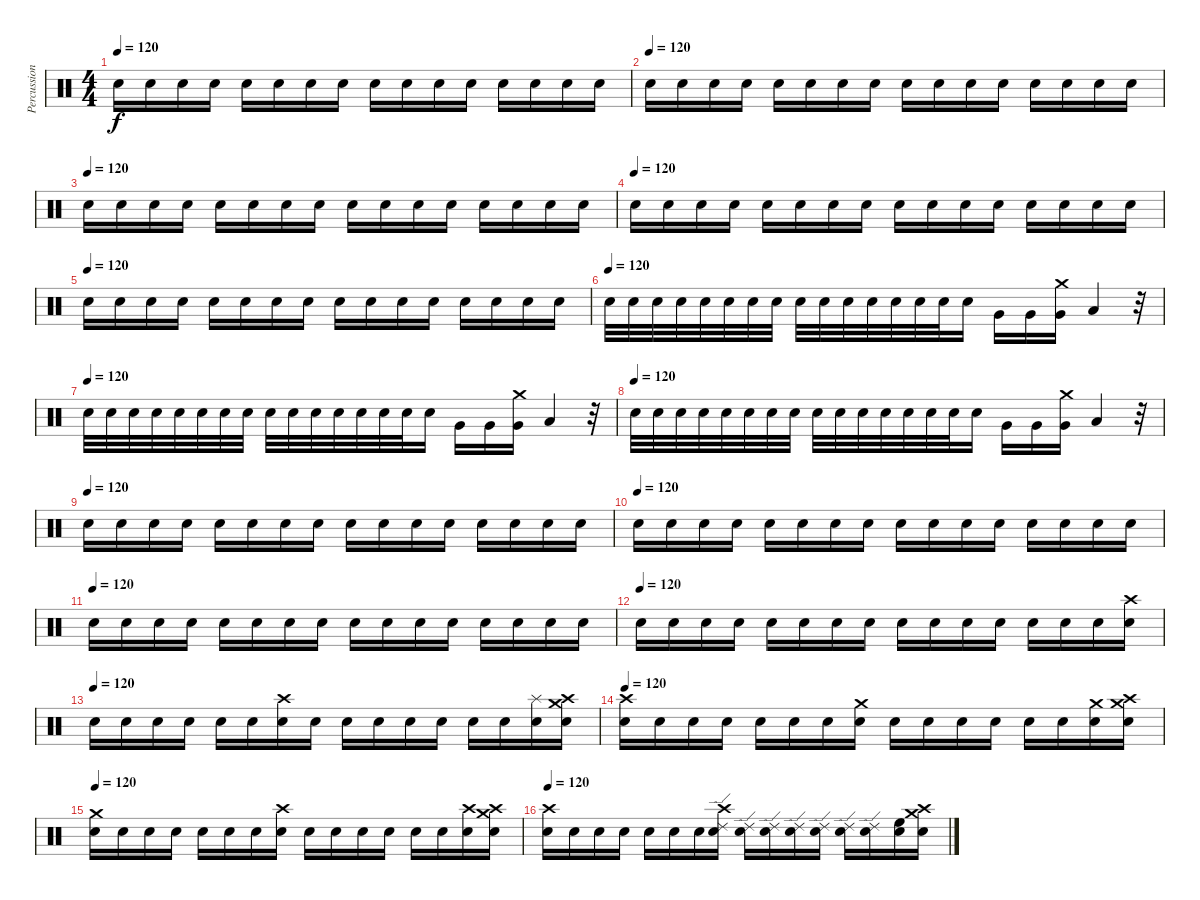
\track ("Percussion" "Percussion") {instrument percussion}
\staff {score}
\articulation defaults
\ts (4 4)
\tempo 120
\clef neutral
\ks c "Snare (hit) 2".16{dy f} "Electric Snare (hit)".16 "Snare (hit) 2".16 "Electric Snare (hit)".16 "Snare (hit) 2".16 "Electric Snare (hit)".16 "Snare (hit) 2".16 "Snare (hit) 2".16 "Electric Snare (hit)".16 "Snare (hit) 2".16 "Electric Snare (hit)".16 "Snare (hit) 2".16 "Electric Snare (hit)".16 "Snare (hit) 2".16 "Electric Snare (hit)".16 "Snare (hit) 2".16
|
\tempo (120)
"Snare (hit) 2".16 "Electric Snare (hit)".16 "Snare (hit) 2".16 "Electric Snare (hit)".16 "Snare (hit) 2".16 "Electric Snare (hit)".16 "Snare (hit) 2".16 "Snare (hit) 2".16 "Electric Snare (hit)".16 "Snare (hit) 2".16 "Electric Snare (hit)".16 "Snare (hit) 2".16 "Electric Snare (hit)".16 "Snare (hit) 2".16 "Electric Snare (hit)".16 "Snare (hit) 2".16 |
\tempo (120)
"Snare (hit) 2".16 "Electric Snare (hit)".16 "Snare (hit) 2".16 "Electric Snare (hit)".16 "Snare (hit) 2".16 "Electric Snare (hit)".16 "Snare (hit) 2".16 "Snare (hit) 2".16 "Electric Snare (hit)".16 "Snare (hit) 2".16 "Electric Snare (hit)".16 "Snare (hit) 2".16 "Electric Snare (hit)".16 "Snare (hit) 2".16 "Electric Snare (hit)".16 "Snare (hit) 2".16 |
\tempo (120)
"Snare (hit) 2".16 "Electric Snare (hit)".16 "Snare (hit) 2".16{volume 8} "Electric Snare (hit)".16 "Snare (hit) 2".16 "Electric Snare (hit)".16 "Snare (hit) 2".16 "Snare (hit) 2".16 "Electric Snare (hit)".16 "Snare (hit) 2".16 "Electric Snare (hit)".16 "Snare (hit) 2".16 "Electric Snare (hit)".16 "Snare (hit) 2".16 "Electric Snare (hit)".16 "Snare (hit) 2".16 |
\tempo (120)
"Snare (hit) 2".16 "Electric Snare (hit)".16 "Snare (hit) 2".16 "Electric Snare (hit)".16 "Snare (hit) 2".16 "Electric Snare (hit)".16 "Snare (hit) 2".16 "Snare (hit) 2".16 "Electric Snare (hit)".16 "Snare (hit) 2".16 "Electric Snare (hit)".16 "Snare (hit) 2".16 "Electric Snare (hit)".16 "Snare (hit) 2".16 "Electric Snare (hit)".16 "Snare (hit) 2".16 |
\tempo (120)
"Snare (hit) 2".32 "Snare (hit) 2".32 "Snare (hit) 2".32 "Snare (hit) 2".32 "Snare (hit) 2".32 "Snare (hit) 2".32 "Snare (hit) 2".32 "Snare (hit) 2".32 "Snare (hit) 2".32 "Snare (hit) 2".32 "Snare (hit) 2".32 "Snare (hit) 2".32 "Snare (hit) 2".32 "Snare (hit) 2".32 "Electric Snare (hit)".32 "Snare (hit) 2".16 "Very Low Tom (hit)".16 "Very Low Tom (hit)".16 ("Very Low Tom (hit)" "Crash medium (hit)").16 "Low Tom (hit)".4 r.32 |
\tempo (120)
"Snare (hit) 2".32 "Snare (hit) 2".32 "Snare (hit) 2".32 "Snare (hit) 2".32 "Snare (hit) 2".32 "Snare (hit) 2".32 "Snare (hit) 2".32 "Snare (hit) 2".32 "Snare (hit) 2".32 "Snare (hit) 2".32 "Snare (hit) 2".32 "Snare (hit) 2".32 "Snare (hit) 2".32 "Snare (hit) 2".32 "Electric Snare (hit)".32{volume 13} "Snare (hit) 2".16 "Very Low Tom (hit)".16 "Very Low Tom (hit)".16 ("Very Low Tom (hit)" "Crash medium (hit)").16 "Low Tom (hit)".4 r.32 |
\tempo (120)
"Snare (hit) 2".32{volume 16} "Snare (hit) 2".32 "Snare (hit) 2".32 "Snare (hit) 2".32 "Snare (hit) 2".32 "Snare (hit) 2".32 "Snare (hit) 2".32 "Snare (hit) 2".32 "Snare (hit) 2".32 "Snare (hit) 2".32 "Snare (hit) 2".32 "Snare (hit) 2".32 "Snare (hit) 2".32 "Snare (hit) 2".32 "Electric Snare (hit)".32 "Snare (hit) 2".16 "Very Low Tom (hit)".16 "Very Low Tom (hit)".16 ("Very Low Tom (hit)" "Crash medium (hit)").16 "Low Tom (hit)".4 r.32 |
\tempo (120)
"Snare (hit) 2".16 "Electric Snare (hit)".16 "Snare (hit) 2".16 "Electric Snare (hit)".16 "Snare (hit) 2".16 "Electric Snare (hit)".16 "Snare (hit) 2".16 "Snare (hit) 2".16 "Electric Snare (hit)".16 "Snare (hit) 2".16 "Electric Snare (hit)".16 "Snare (hit) 2".16 "Electric Snare (hit)".16 "Snare (hit) 2".16 "Electric Snare (hit)".16 "Snare (hit) 2".16 |
\tempo (120)
"Snare (hit) 2".16 "Electric Snare (hit)".16 "Snare (hit) 2".16 "Electric Snare (hit)".16 "Snare (hit) 2".16 "Electric Snare (hit)".16 "Snare (hit) 2".16 "Snare (hit) 2".16 "Electric Snare (hit)".16 "Snare (hit) 2".16 "Electric Snare (hit)".16 "Snare (hit) 2".16 "Electric Snare (hit)".16 "Snare (hit) 2".16 "Electric Snare (hit)".16 "Snare (hit) 2".16 |
\tempo (120)
"Snare (hit) 2".16 "Electric Snare (hit)".16 "Snare (hit) 2".16 "Electric Snare (hit)".16 "Snare (hit) 2".16 "Electric Snare (hit)".16 "Snare (hit) 2".16 "Snare (hit) 2".16 "Electric Snare (hit)".16 "Snare (hit) 2".16 "Electric Snare (hit)".16 "Snare (hit) 2".16 "Electric Snare (hit)".16 "Snare (hit) 2".16 "Electric Snare (hit)".16 "Snare (hit) 2".16 |
\tempo (120)
"Snare (hit) 2".16 "Electric Snare (hit)".16 "Snare (hit) 2".16 "Electric Snare (hit)".16 "Snare (hit) 2".16 "Electric Snare (hit)".16 "Snare (hit) 2".16 "Snare (hit) 2".16 "Electric Snare (hit)".16 "Snare (hit) 2".16 "Electric Snare (hit)".16 "Snare (hit) 2".16 "Electric Snare (hit)".16 "Snare (hit) 2".16 "Electric Snare (hit)".16 ("Snare (hit) 2" "Crash high (hit)").16 |
\tempo (120)
"Snare (hit) 2".16 "Electric Snare (hit)".16 "Snare (hit) 2".16 "Electric Snare (hit)".16 "Snare (hit) 2".16 "Electric Snare (hit)".16 ("Snare (hit) 2" "Crash high (hit)").16 "Snare (hit) 2".16 "Electric Snare (hit)".16 "Snare (hit) 2".16 "Electric Snare (hit)".16 "Snare (hit) 2".16 "Electric Snare (hit)".16 "Snare (hit) 2".16 ("Electric Snare (hit)" "Splash (hit)").16 ("Snare (hit) 2" "Crash high (hit)" "Crash medium (hit)").16 |
\tempo 120
("Snare (hit) 2" "Crash high (hit)").16 "Electric Snare (hit)".16 "Snare (hit) 2".16 "Electric Snare (hit)".16 "Snare (hit) 2".16 "Electric Snare (hit)".16 "Snare (hit) 2".16 ("Snare (hit) 2" "Crash medium (hit)").16 "Electric Snare (hit)".16 "Snare (hit) 2".16 "Electric Snare (hit)".16 "Snare (hit) 2".16 "Electric Snare (hit)".16 "Snare (hit) 2".16 ("Electric Snare (hit)" "Crash medium (hit)").16 ("Snare (hit) 2" "Crash high (hit)" "Crash medium (hit)").16 |
\tempo 120
("Snare (hit) 2" "Crash medium (hit)").16 "Electric Snare (hit)".16 "Snare (hit) 2".16 "Electric Snare (hit)".16 "Snare (hit) 2".16 "Electric Snare (hit)".16 "Snare (hit) 2".16 ("Snare (hit) 2" "Crash high (hit)").16 "Electric Snare (hit)".16 "Snare (hit) 2".16 "Electric Snare (hit)".16 "Snare (hit) 2".16 "Electric Snare (hit)".16 "Snare (hit) 2".16 ("Electric Snare (hit)" "Crash high (hit)").16 ("Snare (hit) 2" "Crash high (hit)" "Crash medium (hit)").16 |
\tempo 120
("Snare (hit) 2" "Crash high (hit)").16 "Electric Snare (hit)".16 "Snare (hit) 2".16 "Electric Snare (hit)".16 "Snare (hit) 2".16 "Electric Snare (hit)".16 "Snare (hit) 2".16 ("Snare (hit) 2" "Ride (edge) 2" "Crash high (hit)").16 ("Electric Snare (hit)" "Ride (edge) 2").16 ("Snare (hit) 2" "Ride (edge) 2").16 ("Electric Snare (hit)" "Ride (edge) 2").16 ("Snare (hit) 2" "Ride (edge) 2").16 ("Electric Snare (hit)" "Ride (edge) 2").16 ("Snare (hit) 2" "Ride (edge) 2").16 ("Electric Snare (hit)" "High Floor Tom (hit)").16 ("Snare (hit) 2" "Crash high (hit)" "Crash medium (hit)").16
